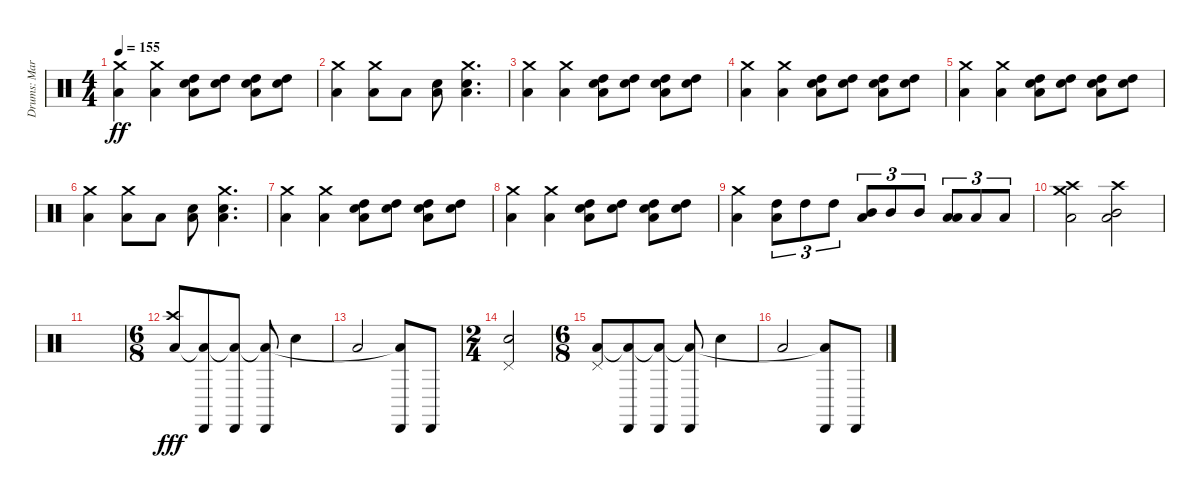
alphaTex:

\track ("Drums: Mark Cross" "Drums: Mar") {instrument percussion}
\staff {score}
\articulation defaults
\ts (4 4)
\tempo 155
\clef neutral
\ks c
("Crash medium (hit)" "Low Tom (hit)").4{dy ff} ("Crash medium (hit)" "Low Tom (hit)").4 ("Snare (hit) 2" "High Tom (hit)" "Low Tom (hit)").8 ("Snare (hit) 2" "High Tom (hit)").8 ("Snare (hit) 2" "High Tom (hit)" "Low Tom (hit)").8 ("Snare (hit) 2" "High Tom (hit)").8 |
("Crash medium (hit)" "Low Tom (hit)").4 ("Crash medium (hit)" "Low Tom (hit)").8 "Low Tom (hit)".8 ("Snare (hit) 2" "Low Tom (hit)").8 ("Crash medium (hit)" "Snare (hit) 2" "Low Tom (hit)").4{d} |
("Crash medium (hit)" "Low Tom (hit)").4 ("Crash medium (hit)" "Low Tom (hit)").4 ("Snare (hit) 2" "High Tom (hit)" "Low Tom (hit)").8 ("Snare (hit) 2" "High Tom (hit)").8 ("Snare (hit) 2" "High Tom (hit)" "Low Tom (hit)").8 ("Snare (hit) 2" "High Tom (hit)").8 |
("Crash medium (hit)" "Low Tom (hit)").4 ("Crash medium (hit)" "Low Tom (hit)").4 ("Snare (hit) 2" "High Tom (hit)" "Low Tom (hit)").8 ("Snare (hit) 2" "High Tom (hit)").8 ("Snare (hit) 2" "High Tom (hit)" "Low Tom (hit)").8 ("Snare (hit) 2" "High Tom (hit)").8 |
("Crash medium (hit)" "Low Tom (hit)").4 ("Crash medium (hit)" "Low Tom (hit)").4 ("Snare (hit) 2" "High Tom (hit)" "Low Tom (hit)").8 ("Snare (hit) 2" "High Tom (hit)").8 ("Snare (hit) 2" "High Tom (hit)" "Low Tom (hit)").8 ("Snare (hit) 2" "High Tom (hit)").8 |
("Crash medium (hit)" "Low Tom (hit)").4 ("Crash medium (hit)" "Low Tom (hit)").8 "Low Tom (hit)".8 ("Snare (hit) 2" "Low Tom (hit)").8 ("Crash medium (hit)" "Snare (hit) 2" "Low Tom (hit)").4{d} |
("Crash medium (hit)" "Low Tom (hit)").4 ("Crash medium (hit)" "Low Tom (hit)").4 ("Snare (hit) 2" "High Tom (hit)" "Low Tom (hit)").8 ("Snare (hit) 2" "High Tom (hit)").8 ("Snare (hit) 2" "High Tom (hit)" "Low Tom (hit)").8 ("Snare (hit) 2" "High Tom (hit)").8 |
("Crash medium (hit)" "Low Tom (hit)").4 ("Crash medium (hit)" "Low Tom (hit)").4 ("Snare (hit) 2" "High Tom (hit)" "Low Tom (hit)").8 ("Snare (hit) 2" "High Tom (hit)").8 ("Snare (hit) 2" "High Tom (hit)" "Low Tom (hit)").8 ("Snare (hit) 2" "High Tom (hit)").8 |
("Crash medium (hit)" "Low Tom (hit)").4 ("Low Tom (hit)" "High Tom (hit)").8{tu (3 2)} "High Tom (hit)".8{tu (3 2)} "High Tom (hit)".8{tu (3 2)} ("Low Tom (hit)" "Mid Tom (hit)").8{tu (3 2)} "Mid Tom (hit)".8{tu (3 2)} "Mid Tom (hit)".8{tu (3 2)} ("Low Tom (hit)" "Low Tom (hit)").8{tu (3 2)} "Low Tom (hit)".8{tu (3 2)} "Low Tom (hit)".8{tu (3 2)} |
("Crash medium (hit)" "Crash high (hit)" "Low Tom (hit)").2 ("Mid Tom (hit)" "Crash high (hit)" "Low Tom (hit)").2 |
|
\ts (6 8)
("Crash high (hit)" "Low Tom (hit)").8{dy fff} ("Cabasa (hit)" "Low Tom (hit)"{t}).8 ("Cabasa (hit)" "Low Tom (hit)"{t}).8 ("Cabasa (hit)" "Low Tom (hit)"{t}).8 "Snare (hit) 2".4 |
"Low Tom (hit)".2 ("Cabasa (hit)" "Low Tom (hit)"{t}).8 "Cabasa (hit)".8 |
\ts (2 4)
("Pedal Hi-Hat (hit)" "Snare (hit) 2").2 |
\ts (6 8)
("Pedal Hi-Hat (hit)" "Low Tom (hit)").8 ("Cabasa (hit)" "Low Tom (hit)"{t}).8 ("Cabasa (hit)" "Low Tom (hit)"{t}).8 ("Cabasa (hit)" "Low Tom (hit)"{t}).8 "Snare (hit) 2".4 |
"Low Tom (hit)".2 ("Cabasa (hit)" "Low Tom (hit)"{t}).8 "Cabasa (hit)".8
